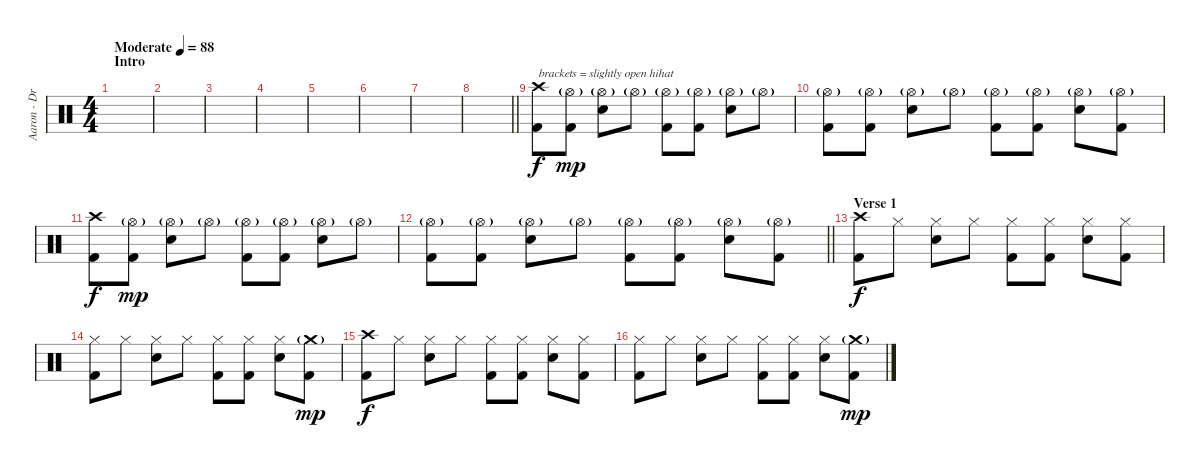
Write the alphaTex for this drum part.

\track ("Aaron - Drums" "Aaron - Dr") {instrument percussion}
\staff {score}
\articulation defaults
\ts (4 4)
\section ("" "Intro")
\tempo (88 "Moderate")
\clef neutral
\ks c
|
|
|
|
|
|
|
\barLineRight lightlight
|
\section ("" "")
("Crash high (hit)" "Kick (hit) 2").8{txt "brackets = slightly open hihat"} ("Hi-Hat (open)"{g} "Kick (hit) 2").8{dy mp} ("Hi-Hat (open)"{g} "Electric Snare (hit)").8 "Hi-Hat (open)"{g}.8 ("Hi-Hat (open)"{g} "Kick (hit) 2").8 ("Hi-Hat (open)"{g} "Kick (hit) 2").8 ("Hi-Hat (open)"{g} "Electric Snare (hit)").8 "Hi-Hat (open)"{g}.8 |
("Hi-Hat (open)"{g} "Kick (hit) 2").8 ("Hi-Hat (open)"{g} "Kick (hit) 2").8 ("Hi-Hat (open)"{g} "Electric Snare (hit)").8 "Hi-Hat (open)"{g}.8 ("Hi-Hat (open)"{g} "Kick (hit) 2").8 ("Hi-Hat (open)"{g} "Kick (hit) 2").8 ("Hi-Hat (open)"{g} "Electric Snare (hit)").8 ("Hi-Hat (open)"{g} "Kick (hit) 2").8 |
("Crash high (hit)" "Kick (hit) 2").8{dy f} ("Hi-Hat (open)"{g} "Kick (hit) 2").8{dy mp} ("Hi-Hat (open)"{g} "Electric Snare (hit)").8 "Hi-Hat (open)"{g}.8 ("Hi-Hat (open)"{g} "Kick (hit) 2").8 ("Hi-Hat (open)"{g} "Kick (hit) 2").8 ("Hi-Hat (open)"{g} "Electric Snare (hit)").8 "Hi-Hat (open)"{g}.8 |
\barLineRight lightlight
("Hi-Hat (open)"{g} "Kick (hit) 2").8 ("Hi-Hat (open)"{g} "Kick (hit) 2").8 ("Hi-Hat (open)"{g} "Electric Snare (hit)").8 "Hi-Hat (open)"{g}.8 ("Hi-Hat (open)"{g} "Kick (hit) 2").8 ("Hi-Hat (open)"{g} "Kick (hit) 2").8 ("Hi-Hat (open)"{g} "Electric Snare (hit)").8 ("Hi-Hat (open)"{g} "Kick (hit) 2").8 |
\section ("" "Verse 1")
("Crash high (hit)" "Kick (hit) 2").8{dy f} "Hi-Hat (closed)".8 ("Hi-Hat (closed)" "Electric Snare (hit)").8 "Hi-Hat (closed)".8 ("Hi-Hat (closed)" "Kick (hit) 2").8 ("Hi-Hat (closed)" "Kick (hit) 2").8 ("Hi-Hat (closed)" "Electric Snare (hit)").8 ("Hi-Hat (closed)" "Kick (hit) 2").8 |
("Hi-Hat (closed)" "Kick (hit) 2").8 "Hi-Hat (closed)".8 ("Hi-Hat (closed)" "Electric Snare (hit)").8 "Hi-Hat (closed)".8 ("Hi-Hat (closed)" "Kick (hit) 2").8 ("Hi-Hat (closed)" "Kick (hit) 2").8 ("Hi-Hat (closed)" "Electric Snare (hit)").8 ("Crash medium (hit)"{g} "Kick (hit) 2").8{dy mp} |
("Crash high (hit)" "Kick (hit) 2").8{dy f} "Hi-Hat (closed)".8 ("Hi-Hat (closed)" "Electric Snare (hit)").8 "Hi-Hat (closed)".8 ("Hi-Hat (closed)" "Kick (hit) 2").8 ("Hi-Hat (closed)" "Kick (hit) 2").8 ("Hi-Hat (closed)" "Electric Snare (hit)").8 ("Hi-Hat (closed)" "Kick (hit) 2").8 |
("Hi-Hat (closed)" "Kick (hit) 2").8 "Hi-Hat (closed)".8 ("Hi-Hat (closed)" "Electric Snare (hit)").8 "Hi-Hat (closed)".8 ("Hi-Hat (closed)" "Kick (hit) 2").8 ("Hi-Hat (closed)" "Kick (hit) 2").8 ("Hi-Hat (closed)" "Electric Snare (hit)").8 ("Crash medium (hit)"{g} "Kick (hit) 2").8{dy mp}
